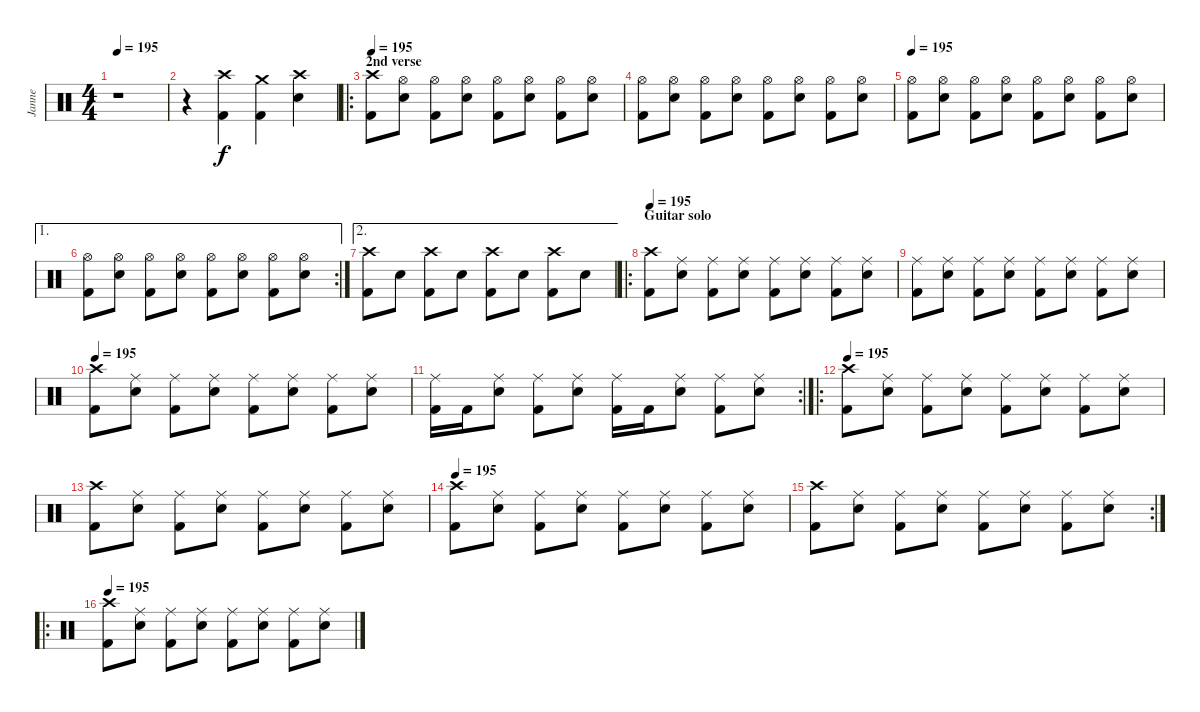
\track ("Janne" "Janne") {instrument percussion}
\staff {score}
\articulation defaults
\ts (4 4)
\tempo 195
\clef neutral
\ks c
r.1{dy f} |
r.4 ("Crash high (hit)" "Kick (hit) 2").4 ("Crash medium (hit)" "Kick (hit) 2").4 ("Crash high (hit)" "Electric Snare (hit)").4 |
\ro
\section ("" "2nd verse")
\tempo 195
("Crash high (hit)" "Kick (hit) 2").8 ("Hi-Hat (open)" "Electric Snare (hit)").8 ("Hi-Hat (open)" "Kick (hit) 2").8 ("Hi-Hat (open)" "Electric Snare (hit)").8 ("Hi-Hat (open)" "Kick (hit) 2").8 ("Hi-Hat (open)" "Electric Snare (hit)").8 ("Hi-Hat (open)" "Kick (hit) 2").8 ("Hi-Hat (open)" "Electric Snare (hit)").8 |
("Hi-Hat (open)" "Kick (hit) 2").8 ("Hi-Hat (open)" "Electric Snare (hit)").8 ("Hi-Hat (open)" "Kick (hit) 2").8 ("Hi-Hat (open)" "Electric Snare (hit)").8 ("Hi-Hat (open)" "Kick (hit) 2").8 ("Hi-Hat (open)" "Electric Snare (hit)").8 ("Hi-Hat (open)" "Kick (hit) 2").8 ("Hi-Hat (open)" "Electric Snare (hit)").8 |
\tempo 195
("Hi-Hat (open)" "Kick (hit) 2").8 ("Hi-Hat (open)" "Electric Snare (hit)").8 ("Hi-Hat (open)" "Kick (hit) 2").8 ("Hi-Hat (open)" "Electric Snare (hit)").8 ("Hi-Hat (open)" "Kick (hit) 2").8 ("Hi-Hat (open)" "Electric Snare (hit)").8 ("Hi-Hat (open)" "Kick (hit) 2").8 ("Hi-Hat (open)" "Electric Snare (hit)").8 |
\ae 1
\rc 2
("Hi-Hat (open)" "Kick (hit) 2").8 ("Hi-Hat (open)" "Electric Snare (hit)").8 ("Hi-Hat (open)" "Kick (hit) 2").8 ("Hi-Hat (open)" "Electric Snare (hit)").8 ("Hi-Hat (open)" "Kick (hit) 2").8 ("Hi-Hat (open)" "Electric Snare (hit)").8 ("Hi-Hat (open)" "Kick (hit) 2").8 ("Hi-Hat (open)" "Electric Snare (hit)").8 |
\ae 2
("Crash high (hit)" "Kick (hit) 2").8 "Electric Snare (hit)".8 ("Crash high (hit)" "Kick (hit) 2").8 "Electric Snare (hit)".8 ("Crash high (hit)" "Kick (hit) 2").8 "Electric Snare (hit)".8 ("Crash high (hit)" "Kick (hit) 2").8 "Electric Snare (hit)".8 |
\ro
\section ("" "Guitar solo")
\tempo 195
("Crash high (hit)" "Kick (hit) 2").8 ("Ride (middle)" "Electric Snare (hit)").8 ("Ride (middle)" "Kick (hit) 2").8 ("Ride (middle)" "Electric Snare (hit)").8 ("Ride (middle)" "Kick (hit) 2").8 ("Ride (middle)" "Electric Snare (hit)").8 ("Ride (middle)" "Kick (hit) 2").8 ("Ride (middle)" "Electric Snare (hit)").8 |
("Ride (middle)" "Kick (hit) 2").8 ("Ride (middle)" "Electric Snare (hit)").8 ("Ride (middle)" "Kick (hit) 2").8 ("Ride (middle)" "Electric Snare (hit)").8 ("Ride (middle)" "Kick (hit) 2").8 ("Ride (middle)" "Electric Snare (hit)").8 ("Ride (middle)" "Kick (hit) 2").8 ("Ride (middle)" "Electric Snare (hit)").8 |
\tempo 195
("Crash high (hit)" "Kick (hit) 2").8 ("Ride (middle)" "Electric Snare (hit)").8 ("Ride (middle)" "Kick (hit) 2").8 ("Ride (middle)" "Electric Snare (hit)").8 ("Ride (middle)" "Kick (hit) 2").8 ("Ride (middle)" "Electric Snare (hit)").8 ("Ride (middle)" "Kick (hit) 2").8 ("Ride (middle)" "Electric Snare (hit)").8 |
\rc 2
("Ride (middle)" "Kick (hit) 2").16 "Kick (hit) 2".16 ("Ride (middle)" "Electric Snare (hit)").8 ("Ride (middle)" "Kick (hit) 2").8 ("Ride (middle)" "Electric Snare (hit)").8 ("Ride (middle)" "Kick (hit) 2").16 "Kick (hit) 2".16 ("Ride (middle)" "Electric Snare (hit)").8 ("Ride (middle)" "Kick (hit) 2").8 ("Ride (middle)" "Electric Snare (hit)").8 |
\ro
\tempo 195
("Crash high (hit)" "Kick (hit) 2").8 ("Ride (middle)" "Electric Snare (hit)").8 ("Ride (middle)" "Kick (hit) 2").8 ("Ride (middle)" "Electric Snare (hit)").8 ("Ride (middle)" "Kick (hit) 2").8 ("Ride (middle)" "Electric Snare (hit)").8 ("Ride (middle)" "Kick (hit) 2").8 ("Ride (middle)" "Electric Snare (hit)").8 |
("Crash high (hit)" "Kick (hit) 2").8 ("Ride (middle)" "Electric Snare (hit)").8 ("Ride (middle)" "Kick (hit) 2").8 ("Ride (middle)" "Electric Snare (hit)").8 ("Ride (middle)" "Kick (hit) 2").8 ("Ride (middle)" "Electric Snare (hit)").8 ("Ride (middle)" "Kick (hit) 2").8 ("Ride (middle)" "Electric Snare (hit)").8 |
\tempo 195
("Crash high (hit)" "Kick (hit) 2").8 ("Ride (middle)" "Electric Snare (hit)").8 ("Ride (middle)" "Kick (hit) 2").8 ("Ride (middle)" "Electric Snare (hit)").8 ("Ride (middle)" "Kick (hit) 2").8 ("Ride (middle)" "Electric Snare (hit)").8 ("Ride (middle)" "Kick (hit) 2").8 ("Ride (middle)" "Electric Snare (hit)").8 |
\rc 2
("Crash high (hit)" "Kick (hit) 2").8 ("Ride (middle)" "Electric Snare (hit)").8 ("Ride (middle)" "Kick (hit) 2").8 ("Ride (middle)" "Electric Snare (hit)").8 ("Ride (middle)" "Kick (hit) 2").8 ("Ride (middle)" "Electric Snare (hit)").8 ("Ride (middle)" "Kick (hit) 2").8 ("Ride (middle)" "Electric Snare (hit)").8 |
\ro
\tempo 195
("Crash high (hit)" "Kick (hit) 2").8 ("Ride (middle)" "Electric Snare (hit)").8 ("Ride (middle)" "Kick (hit) 2").8 ("Ride (middle)" "Electric Snare (hit)").8 ("Ride (middle)" "Kick (hit) 2").8 ("Ride (middle)" "Electric Snare (hit)").8 ("Ride (middle)" "Kick (hit) 2").8 ("Ride (middle)" "Electric Snare (hit)").8
